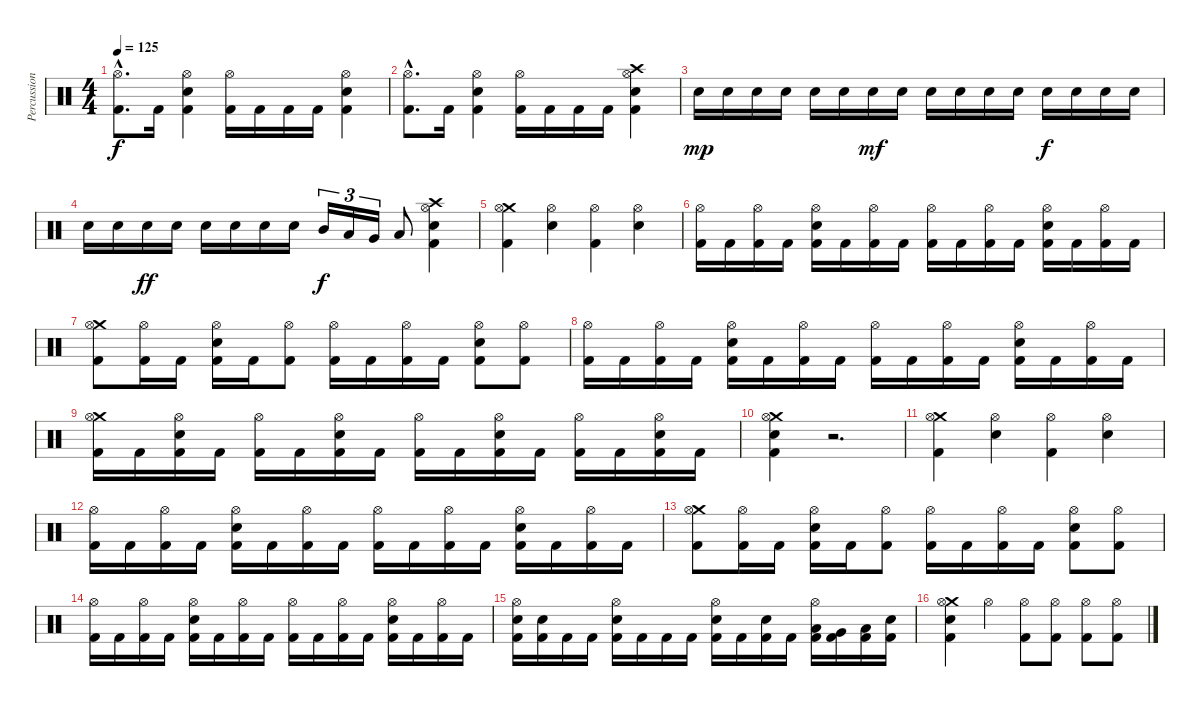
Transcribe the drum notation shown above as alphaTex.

\track ("Percussion" "Percussion") {instrument percussion}
\staff {score}
\articulation defaults
\ts (4 4)
\tempo 125
\clef neutral
\ks c
("Hi-Hat (open)"{hac} "Kick (hit) 2"{hac}).8{d dy f} "Kick (hit) 2".16 ("Hi-Hat (open)" "Electric Snare (hit)" "Kick (hit) 2").4 ("Hi-Hat (open)" "Kick (hit) 2").16 "Kick (hit) 2".16 "Kick (hit) 2".16 "Kick (hit) 2".16 ("Hi-Hat (open)" "Electric Snare (hit)" "Kick (hit) 2").4 |
("Hi-Hat (open)"{hac} "Kick (hit) 2"{hac}).8{d} "Kick (hit) 2".16 ("Hi-Hat (open)" "Electric Snare (hit)" "Kick (hit) 2").4 ("Hi-Hat (open)" "Kick (hit) 2").16 "Kick (hit) 2".16 "Kick (hit) 2".16 "Kick (hit) 2".16 ("Crash high (hit)" "Hi-Hat (open)" "Electric Snare (hit)" "Kick (hit) 2").4 |
"Electric Snare (hit)".16{dy mp} "Electric Snare (hit)".16 "Electric Snare (hit)".16 "Electric Snare (hit)".16 "Electric Snare (hit)".16 "Electric Snare (hit)".16 "Electric Snare (hit)".16{dy mf} "Electric Snare (hit)".16 "Electric Snare (hit)".16 "Electric Snare (hit)".16 "Electric Snare (hit)".16 "Electric Snare (hit)".16 "Electric Snare (hit)".16{dy f} "Electric Snare (hit)".16 "Electric Snare (hit)".16 "Electric Snare (hit)".16 |
"Electric Snare (hit)".16 "Electric Snare (hit)".16 "Electric Snare (hit)".16{dy ff} "Electric Snare (hit)".16 "Electric Snare (hit)".16 "Electric Snare (hit)".16 "Electric Snare (hit)".16 "Electric Snare (hit)".16 "Mid Tom (hit)".16{tu (3 2) dy f} "Low Tom (hit)".16{tu (3 2)} "Very Low Tom (hit)".16{tu (3 2)} "Low Floor Tom (hit)".8 ("Crash high (hit)" "Hi-Hat (open)" "Electric Snare (hit)" "Kick (hit) 2").4 |
("Crash medium (hit)" "Hi-Hat (open)" "Kick (hit) 2").4 ("Hi-Hat (open)" "Electric Snare (hit)").4 ("Hi-Hat (open)" "Kick (hit) 2").4 ("Hi-Hat (open)" "Electric Snare (hit)").4 |
("Hi-Hat (open)" "Kick (hit) 2").16 "Kick (hit) 2".16 ("Hi-Hat (open)" "Kick (hit) 2").16 "Kick (hit) 2".16 ("Hi-Hat (open)" "Electric Snare (hit)" "Kick (hit) 2").16 "Kick (hit) 2".16 ("Hi-Hat (open)" "Kick (hit) 2").16 "Kick (hit) 2".16 ("Hi-Hat (open)" "Kick (hit) 2").16 "Kick (hit) 2".16 ("Hi-Hat (open)" "Kick (hit) 2").16 "Kick (hit) 2".16 ("Hi-Hat (open)" "Electric Snare (hit)" "Kick (hit) 2").16 "Kick (hit) 2".16 ("Hi-Hat (open)" "Kick (hit) 2").16 "Kick (hit) 2".16 |
("Crash medium (hit)" "Hi-Hat (open)" "Kick (hit) 2").8 ("Hi-Hat (open)" "Kick (hit) 2").16 "Kick (hit) 2".16 ("Hi-Hat (open)" "Electric Snare (hit)" "Kick (hit) 2").16 "Kick (hit) 2".16 ("Hi-Hat (open)" "Kick (hit) 2").8 ("Hi-Hat (open)" "Kick (hit) 2").16 "Kick (hit) 2".16 ("Hi-Hat (open)" "Kick (hit) 2").16 "Kick (hit) 2".16 ("Hi-Hat (open)" "Electric Snare (hit)" "Kick (hit) 2").8 ("Hi-Hat (open)" "Kick (hit) 2").8 |
("Hi-Hat (open)" "Kick (hit) 2").16 "Kick (hit) 2".16 ("Hi-Hat (open)" "Kick (hit) 2").16 "Kick (hit) 2".16 ("Hi-Hat (open)" "Electric Snare (hit)" "Kick (hit) 2").16 "Kick (hit) 2".16 ("Hi-Hat (open)" "Kick (hit) 2").16 "Kick (hit) 2".16 ("Hi-Hat (open)" "Kick (hit) 2").16 "Kick (hit) 2".16 ("Hi-Hat (open)" "Kick (hit) 2").16 "Kick (hit) 2".16 ("Hi-Hat (open)" "Electric Snare (hit)" "Kick (hit) 2").16 "Kick (hit) 2".16 ("Hi-Hat (open)" "Kick (hit) 2").16 "Kick (hit) 2".16 |
("Crash medium (hit)" "Hi-Hat (open)" "Kick (hit) 2").16 "Kick (hit) 2".16 ("Hi-Hat (open)" "Electric Snare (hit)" "Kick (hit) 2").16 "Kick (hit) 2".16 ("Hi-Hat (open)" "Kick (hit) 2").16 "Kick (hit) 2".16 ("Hi-Hat (open)" "Electric Snare (hit)" "Kick (hit) 2").16 "Kick (hit) 2".16 ("Hi-Hat (open)" "Kick (hit) 2").16 "Kick (hit) 2".16 ("Hi-Hat (open)" "Electric Snare (hit)" "Kick (hit) 2").16 "Kick (hit) 2".16 ("Hi-Hat (open)" "Kick (hit) 2").16 "Kick (hit) 2".16 ("Hi-Hat (open)" "Electric Snare (hit)" "Kick (hit) 2").16 "Kick (hit) 2".16 |
("Crash medium (hit)" "Hi-Hat (open)" "Electric Snare (hit)" "Kick (hit) 2").4 r.2{d} |
("Crash medium (hit)" "Hi-Hat (open)" "Kick (hit) 2").4 ("Hi-Hat (open)" "Electric Snare (hit)").4 ("Hi-Hat (open)" "Kick (hit) 2").4 ("Hi-Hat (open)" "Electric Snare (hit)").4 |
("Hi-Hat (open)" "Kick (hit) 2").16 "Kick (hit) 2".16 ("Hi-Hat (open)" "Kick (hit) 2").16 "Kick (hit) 2".16 ("Hi-Hat (open)" "Electric Snare (hit)" "Kick (hit) 2").16 "Kick (hit) 2".16 ("Hi-Hat (open)" "Kick (hit) 2").16 "Kick (hit) 2".16 ("Hi-Hat (open)" "Kick (hit) 2").16 "Kick (hit) 2".16 ("Hi-Hat (open)" "Kick (hit) 2").16 "Kick (hit) 2".16 ("Hi-Hat (open)" "Electric Snare (hit)" "Kick (hit) 2").16 "Kick (hit) 2".16 ("Hi-Hat (open)" "Kick (hit) 2").16 "Kick (hit) 2".16 |
("Crash medium (hit)" "Hi-Hat (open)" "Kick (hit) 2").8 ("Hi-Hat (open)" "Kick (hit) 2").16 "Kick (hit) 2".16 ("Hi-Hat (open)" "Electric Snare (hit)" "Kick (hit) 2").16 "Kick (hit) 2".16 ("Hi-Hat (open)" "Kick (hit) 2").8 ("Hi-Hat (open)" "Kick (hit) 2").16 "Kick (hit) 2".16 ("Hi-Hat (open)" "Kick (hit) 2").16 "Kick (hit) 2".16 ("Hi-Hat (open)" "Electric Snare (hit)" "Kick (hit) 2").8 ("Hi-Hat (open)" "Kick (hit) 2").8 |
("Hi-Hat (open)" "Kick (hit) 2").16 "Kick (hit) 2".16 ("Hi-Hat (open)" "Kick (hit) 2").16 "Kick (hit) 2".16 ("Hi-Hat (open)" "Electric Snare (hit)" "Kick (hit) 2").16 "Kick (hit) 2".16 ("Hi-Hat (open)" "Kick (hit) 2").16 "Kick (hit) 2".16 ("Hi-Hat (open)" "Kick (hit) 2").16 "Kick (hit) 2".16 ("Hi-Hat (open)" "Kick (hit) 2").16 "Kick (hit) 2".16 ("Hi-Hat (open)" "Electric Snare (hit)" "Kick (hit) 2").16 "Kick (hit) 2".16 ("Hi-Hat (open)" "Kick (hit) 2").16 "Kick (hit) 2".16 |
("Hi-Hat (open)" "Electric Snare (hit)" "Kick (hit) 2").16 ("Electric Snare (hit)" "Kick (hit) 2").16 "Kick (hit) 2".16 "Kick (hit) 2".16 ("Hi-Hat (open)" "Electric Snare (hit)" "Kick (hit) 2").16 "Kick (hit) 2".16 "Kick (hit) 2".16 "Kick (hit) 2".16 ("Hi-Hat (open)" "Electric Snare (hit)" "Kick (hit) 2").16 "Kick (hit) 2".16 ("Electric Snare (hit)" "Kick (hit) 2").16 "Kick (hit) 2".16 ("Hi-Hat (open)" "Low Tom (hit)" "Kick (hit) 2").16 ("Very Low Tom (hit)" "Kick (hit) 2").16 ("Low Floor Tom (hit)" "Kick (hit) 2").16 ("Electric Snare (hit)" "Kick (hit) 2").16 |
("Crash medium (hit)" "Hi-Hat (open)" "Electric Snare (hit)" "Kick (hit) 2").4 "Hi-Hat (open)".4 ("Hi-Hat (open)" "Kick (hit) 2").8 ("Hi-Hat (open)" "Kick (hit) 2").8 ("Hi-Hat (open)" "Kick (hit) 2").8 ("Hi-Hat (open)" "Kick (hit) 2").8
